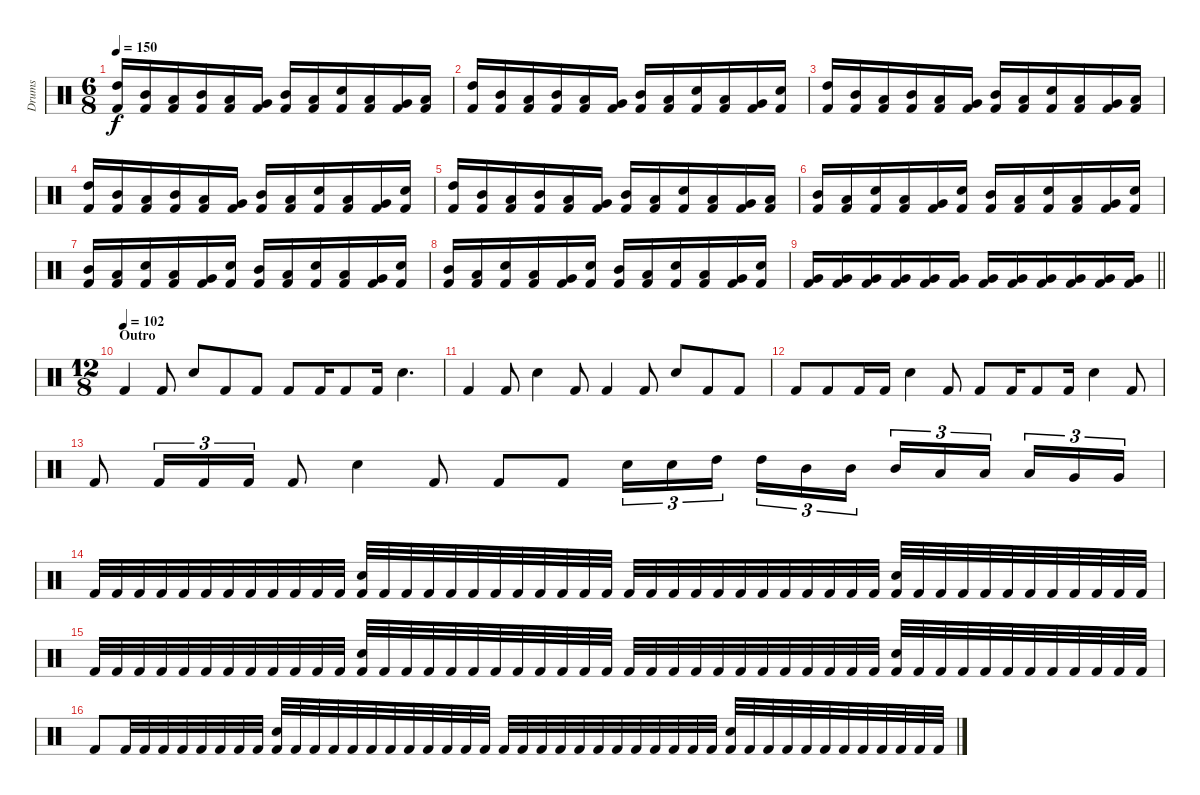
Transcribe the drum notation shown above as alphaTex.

\track ("Drums" "Drums") {instrument percussion}
\staff {score}
\articulation defaults
\ts (6 8)
\tempo 150
\clef neutral
\ks c
("High Tom (hit)" "Kick (hit) 2").16{dy f} ("Mid Tom (hit)" "Kick (hit) 2").16 ("Low Tom (hit)" "Kick (hit) 2").16 ("Mid Tom (hit)" "Kick (hit) 2").16 ("Low Tom (hit)" "Kick (hit) 2").16 ("Very Low Tom (hit)" "Kick (hit) 2").16 ("Mid Tom (hit)" "Kick (hit) 2").16 ("Low Tom (hit)" "Kick (hit) 2").16 ("Electric Snare (hit)" "Kick (hit) 2").16 ("Low Tom (hit)" "Kick (hit) 2").16 ("Very Low Tom (hit)" "Kick (hit) 2").16 ("Low Floor Tom (hit)" "Kick (hit) 2").16 |
("High Tom (hit)" "Kick (hit) 2").16 ("Mid Tom (hit)" "Kick (hit) 2").16 ("Low Tom (hit)" "Kick (hit) 2").16 ("Mid Tom (hit)" "Kick (hit) 2").16 ("Low Tom (hit)" "Kick (hit) 2").16 ("Very Low Tom (hit)" "Kick (hit) 2").16 ("Mid Tom (hit)" "Kick (hit) 2").16 ("Low Tom (hit)" "Kick (hit) 2").16 ("Electric Snare (hit)" "Kick (hit) 2").16 ("Low Tom (hit)" "Kick (hit) 2").16 ("Very Low Tom (hit)" "Kick (hit) 2").16 ("Electric Snare (hit)" "Kick (hit) 2").16 |
("High Tom (hit)" "Kick (hit) 2").16 ("Mid Tom (hit)" "Kick (hit) 2").16 ("Low Tom (hit)" "Kick (hit) 2").16 ("Mid Tom (hit)" "Kick (hit) 2").16 ("Low Tom (hit)" "Kick (hit) 2").16 ("Very Low Tom (hit)" "Kick (hit) 2").16 ("Mid Tom (hit)" "Kick (hit) 2").16 ("Low Tom (hit)" "Kick (hit) 2").16 ("Electric Snare (hit)" "Kick (hit) 2").16 ("Low Tom (hit)" "Kick (hit) 2").16 ("Very Low Tom (hit)" "Kick (hit) 2").16 ("Low Floor Tom (hit)" "Kick (hit) 2").16 |
("High Tom (hit)" "Kick (hit) 2").16 ("Mid Tom (hit)" "Kick (hit) 2").16 ("Low Tom (hit)" "Kick (hit) 2").16 ("Mid Tom (hit)" "Kick (hit) 2").16 ("Low Tom (hit)" "Kick (hit) 2").16 ("Very Low Tom (hit)" "Kick (hit) 2").16 ("Mid Tom (hit)" "Kick (hit) 2").16 ("Low Tom (hit)" "Kick (hit) 2").16 ("Electric Snare (hit)" "Kick (hit) 2").16 ("Low Tom (hit)" "Kick (hit) 2").16 ("Very Low Tom (hit)" "Kick (hit) 2").16 ("Electric Snare (hit)" "Kick (hit) 2").16 |
("High Tom (hit)" "Kick (hit) 2").16 ("Mid Tom (hit)" "Kick (hit) 2").16 ("Low Tom (hit)" "Kick (hit) 2").16 ("Mid Tom (hit)" "Kick (hit) 2").16 ("Low Tom (hit)" "Kick (hit) 2").16 ("Very Low Tom (hit)" "Kick (hit) 2").16 ("Mid Tom (hit)" "Kick (hit) 2").16 ("Low Tom (hit)" "Kick (hit) 2").16 ("Electric Snare (hit)" "Kick (hit) 2").16 ("Low Tom (hit)" "Kick (hit) 2").16 ("Very Low Tom (hit)" "Kick (hit) 2").16 ("Low Floor Tom (hit)" "Kick (hit) 2").16 |
("Mid Tom (hit)" "Kick (hit) 2").16 ("Low Tom (hit)" "Kick (hit) 2").16 ("Electric Snare (hit)" "Kick (hit) 2").16 ("Low Tom (hit)" "Kick (hit) 2").16 ("Very Low Tom (hit)" "Kick (hit) 2").16 ("Electric Snare (hit)" "Kick (hit) 2").16 ("Mid Tom (hit)" "Kick (hit) 2").16 ("Low Tom (hit)" "Kick (hit) 2").16 ("Electric Snare (hit)" "Kick (hit) 2").16 ("Low Tom (hit)" "Kick (hit) 2").16 ("Very Low Tom (hit)" "Kick (hit) 2").16 ("Electric Snare (hit)" "Kick (hit) 2").16 |
("Mid Tom (hit)" "Kick (hit) 2").16 ("Low Tom (hit)" "Kick (hit) 2").16 ("Electric Snare (hit)" "Kick (hit) 2").16 ("Low Tom (hit)" "Kick (hit) 2").16 ("Very Low Tom (hit)" "Kick (hit) 2").16 ("Electric Snare (hit)" "Kick (hit) 2").16 ("Mid Tom (hit)" "Kick (hit) 2").16 ("Low Tom (hit)" "Kick (hit) 2").16 ("Electric Snare (hit)" "Kick (hit) 2").16 ("Low Tom (hit)" "Kick (hit) 2").16 ("Very Low Tom (hit)" "Kick (hit) 2").16 ("Electric Snare (hit)" "Kick (hit) 2").16 |
("Mid Tom (hit)" "Kick (hit) 2").16 ("Low Tom (hit)" "Kick (hit) 2").16 ("Electric Snare (hit)" "Kick (hit) 2").16 ("Low Tom (hit)" "Kick (hit) 2").16 ("Very Low Tom (hit)" "Kick (hit) 2").16 ("Electric Snare (hit)" "Kick (hit) 2").16 ("Mid Tom (hit)" "Kick (hit) 2").16 ("Low Tom (hit)" "Kick (hit) 2").16 ("Electric Snare (hit)" "Kick (hit) 2").16 ("Low Tom (hit)" "Kick (hit) 2").16 ("Very Low Tom (hit)" "Kick (hit) 2").16 ("Electric Snare (hit)" "Kick (hit) 2").16 |
\barLineRight lightlight
("Very Low Tom (hit)" "Kick (hit) 2").16 ("Very Low Tom (hit)" "Kick (hit) 2").16 ("Very Low Tom (hit)" "Kick (hit) 2").16 ("Very Low Tom (hit)" "Kick (hit) 2").16 ("Very Low Tom (hit)" "Kick (hit) 2").16 ("Very Low Tom (hit)" "Kick (hit) 2").16 ("Very Low Tom (hit)" "Kick (hit) 2").16 ("Very Low Tom (hit)" "Kick (hit) 2").16 ("Very Low Tom (hit)" "Kick (hit) 2").16 ("Very Low Tom (hit)" "Kick (hit) 2").16 ("Very Low Tom (hit)" "Kick (hit) 2").16 ("Very Low Tom (hit)" "Kick (hit) 2").16 |
\ts (12 8)
\section ("" "Outro")
\tempo (102)
"Kick (hit) 2".4 "Kick (hit) 2".8 "Electric Snare (hit)".8 "Kick (hit) 2".8 "Kick (hit) 2".8 "Kick (hit) 2".8 "Kick (hit) 2".16 "Kick (hit) 2".8 "Kick (hit) 2".16 "Electric Snare (hit)".4{d} |
"Kick (hit) 2".4 "Kick (hit) 2".8 "Electric Snare (hit)".4 "Kick (hit) 2".8 "Kick (hit) 2".4 "Kick (hit) 2".8 "Electric Snare (hit)".8 "Kick (hit) 2".8 "Kick (hit) 2".8 |
"Kick (hit) 2".8 "Kick (hit) 2".8 "Kick (hit) 2".16 "Kick (hit) 2".16 "Electric Snare (hit)".4 "Kick (hit) 2".8 "Kick (hit) 2".8 "Kick (hit) 2".16 "Kick (hit) 2".8 "Kick (hit) 2".16 "Electric Snare (hit)".4 "Kick (hit) 2".8 |
"Kick (hit) 2".8 "Kick (hit) 2".16{tu (3 2)} "Kick (hit) 2".16{tu (3 2)} "Kick (hit) 2".16{tu (3 2)} "Kick (hit) 2".8 "Electric Snare (hit)".4 "Kick (hit) 2".8 "Kick (hit) 2".8 "Kick (hit) 2".8 "Electric Snare (hit)".16{tu (3 2)} "Electric Snare (hit)".16{tu (3 2)} "High Tom (hit)".16{tu (3 2)} "High Tom (hit)".16{tu (3 2)} "Mid Tom (hit)".16{tu (3 2)} "Mid Tom (hit)".16{tu (3 2) beam splitsecondary} "Mid Tom (hit)".16{tu (3 2)} "Low Tom (hit)".16{tu (3 2)} "Low Tom (hit)".16{tu (3 2) beam splitsecondary} "Low Tom (hit)".16{tu (3 2)} "Very Low Tom (hit)".16{tu (3 2)} "Very Low Tom (hit)".16{tu (3 2)} |
"Kick (hit) 2".32 "Kick (hit) 2".32 "Kick (hit) 2".32 "Kick (hit) 2".32 "Kick (hit) 2".32 "Kick (hit) 2".32 "Kick (hit) 2".32 "Kick (hit) 2".32 "Kick (hit) 2".32 "Kick (hit) 2".32 "Kick (hit) 2".32 "Kick (hit) 2".32 ("Electric Snare (hit)" "Kick (hit) 2").32 "Kick (hit) 2".32 "Kick (hit) 2".32 "Kick (hit) 2".32 "Kick (hit) 2".32 "Kick (hit) 2".32 "Kick (hit) 2".32 "Kick (hit) 2".32 "Kick (hit) 2".32 "Kick (hit) 2".32 "Kick (hit) 2".32 "Kick (hit) 2".32 "Kick (hit) 2".32 "Kick (hit) 2".32 "Kick (hit) 2".32 "Kick (hit) 2".32 "Kick (hit) 2".32 "Kick (hit) 2".32 "Kick (hit) 2".32 "Kick (hit) 2".32 "Kick (hit) 2".32 "Kick (hit) 2".32 "Kick (hit) 2".32 "Kick (hit) 2".32 ("Electric Snare (hit)" "Kick (hit) 2").32 "Kick (hit) 2".32 "Kick (hit) 2".32 "Kick (hit) 2".32 "Kick (hit) 2".32 "Kick (hit) 2".32 "Kick (hit) 2".32 "Kick (hit) 2".32 "Kick (hit) 2".32 "Kick (hit) 2".32 "Kick (hit) 2".32 "Kick (hit) 2".32 |
"Kick (hit) 2".32 "Kick (hit) 2".32 "Kick (hit) 2".32 "Kick (hit) 2".32 "Kick (hit) 2".32 "Kick (hit) 2".32 "Kick (hit) 2".32 "Kick (hit) 2".32 "Kick (hit) 2".32 "Kick (hit) 2".32 "Kick (hit) 2".32 "Kick (hit) 2".32 ("Electric Snare (hit)" "Kick (hit) 2").32 "Kick (hit) 2".32 "Kick (hit) 2".32 "Kick (hit) 2".32 "Kick (hit) 2".32 "Kick (hit) 2".32 "Kick (hit) 2".32 "Kick (hit) 2".32 "Kick (hit) 2".32 "Kick (hit) 2".32 "Kick (hit) 2".32 "Kick (hit) 2".32 "Kick (hit) 2".32 "Kick (hit) 2".32 "Kick (hit) 2".32 "Kick (hit) 2".32 "Kick (hit) 2".32 "Kick (hit) 2".32 "Kick (hit) 2".32 "Kick (hit) 2".32 "Kick (hit) 2".32 "Kick (hit) 2".32 "Kick (hit) 2".32 "Kick (hit) 2".32 ("Electric Snare (hit)" "Kick (hit) 2").32 "Kick (hit) 2".32 "Kick (hit) 2".32 "Kick (hit) 2".32 "Kick (hit) 2".32 "Kick (hit) 2".32 "Kick (hit) 2".32 "Kick (hit) 2".32 "Kick (hit) 2".32 "Kick (hit) 2".32 "Kick (hit) 2".32 "Kick (hit) 2".32 |
"Kick (hit) 2".8 "Kick (hit) 2".32 "Kick (hit) 2".32 "Kick (hit) 2".32 "Kick (hit) 2".32 "Kick (hit) 2".32 "Kick (hit) 2".32 "Kick (hit) 2".32 "Kick (hit) 2".32 ("Electric Snare (hit)" "Kick (hit) 2").32 "Kick (hit) 2".32 "Kick (hit) 2".32 "Kick (hit) 2".32 "Kick (hit) 2".32 "Kick (hit) 2".32 "Kick (hit) 2".32 "Kick (hit) 2".32 "Kick (hit) 2".32 "Kick (hit) 2".32 "Kick (hit) 2".32 "Kick (hit) 2".32 "Kick (hit) 2".32 "Kick (hit) 2".32 "Kick (hit) 2".32 "Kick (hit) 2".32 "Kick (hit) 2".32 "Kick (hit) 2".32 "Kick (hit) 2".32 "Kick (hit) 2".32 "Kick (hit) 2".32 "Kick (hit) 2".32 "Kick (hit) 2".32 "Kick (hit) 2".32 ("Electric Snare (hit)" "Kick (hit) 2").32 "Kick (hit) 2".32 "Kick (hit) 2".32 "Kick (hit) 2".32 "Kick (hit) 2".32 "Kick (hit) 2".32 "Kick (hit) 2".32 "Kick (hit) 2".32 "Kick (hit) 2".32 "Kick (hit) 2".32 "Kick (hit) 2".32 "Kick (hit) 2".32
